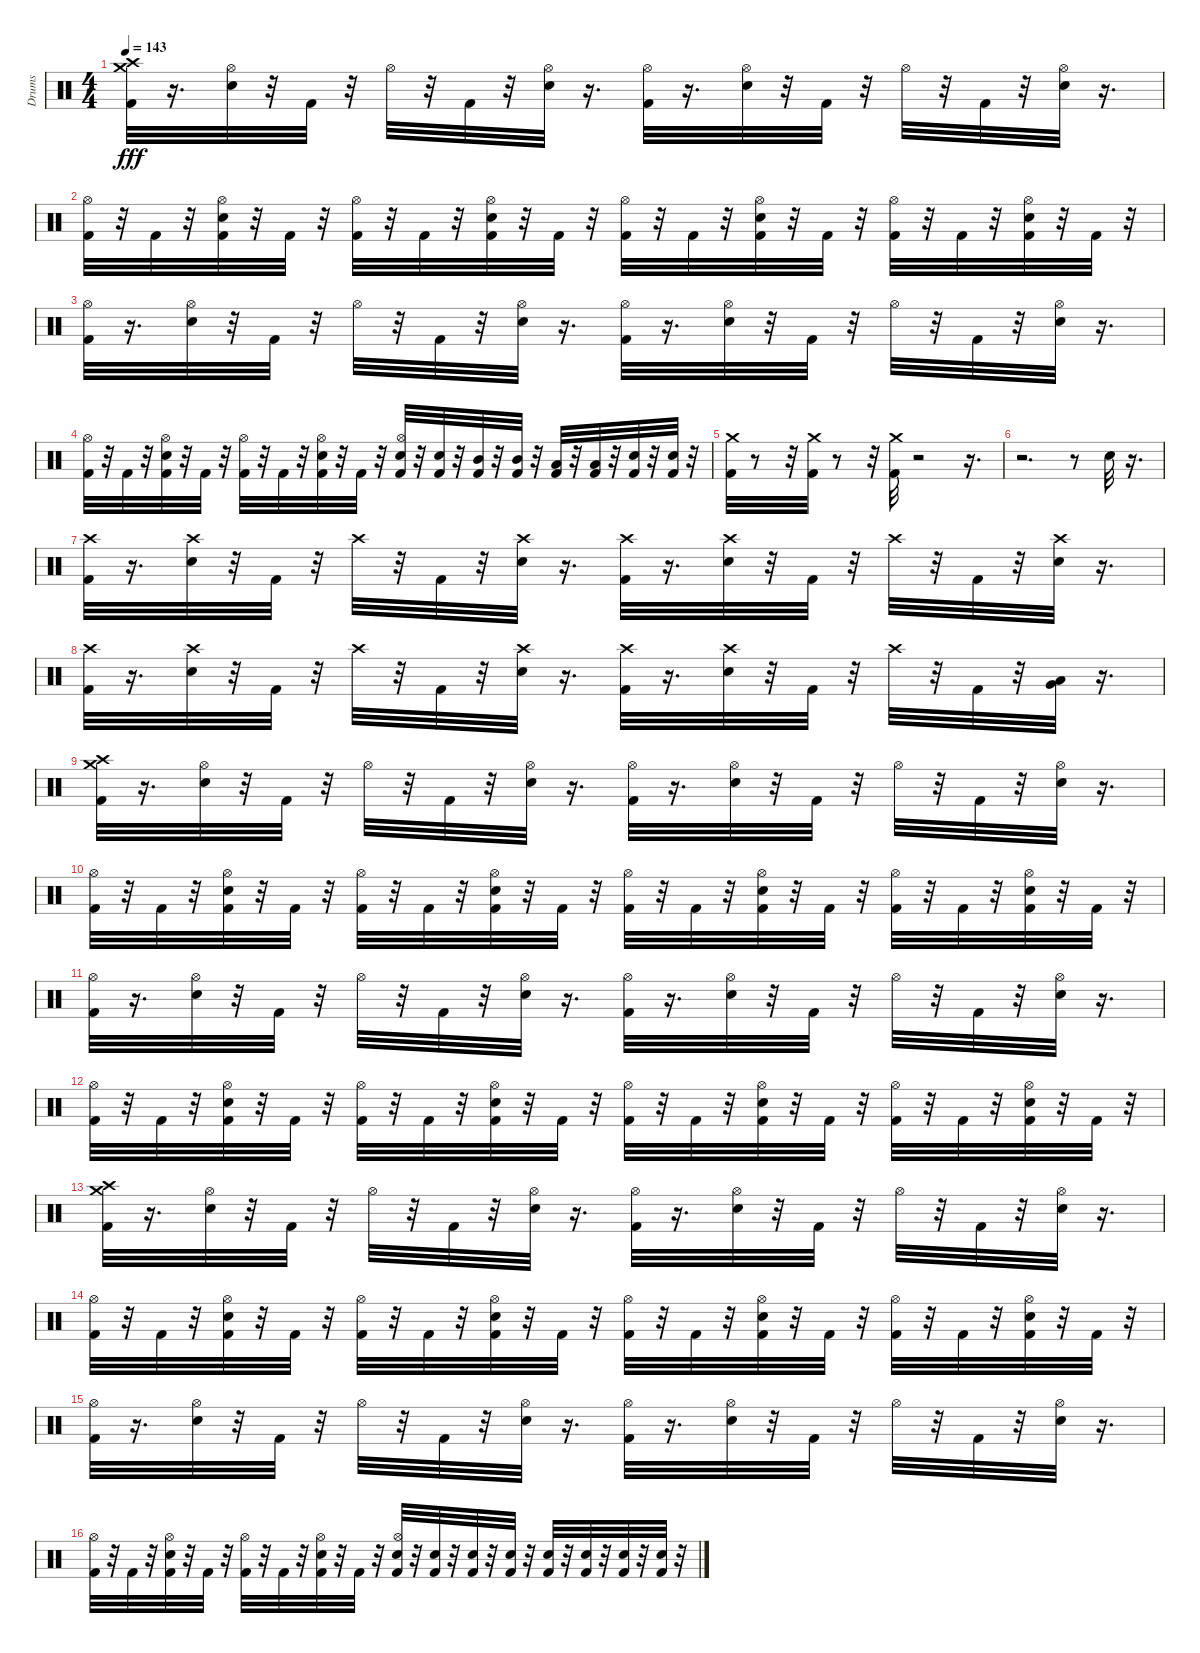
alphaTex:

\track ("Drums" "Drums") {instrument percussion}
\staff {score}
\articulation defaults
\ts (4 4)
\tempo 143
\clef neutral
\ks c
("Crash medium (hit)" "Crash high (hit)" "Kick (hit) 2").32{dy fff} r.16{d} ("Hi-Hat (open)" "Snare (hit) 2").32 r.32 "Kick (hit) 2".32 r.32 "Hi-Hat (open)".32 r.32 "Kick (hit) 2".32 r.32 ("Hi-Hat (open)" "Snare (hit) 2").32 r.16{d} ("Hi-Hat (open)" "Kick (hit) 2").32 r.16{d} ("Hi-Hat (open)" "Snare (hit) 2").32 r.32 "Kick (hit) 2".32 r.32 "Hi-Hat (open)".32 r.32 "Kick (hit) 2".32 r.32 ("Hi-Hat (open)" "Snare (hit) 2").32 r.16{d} |
("Hi-Hat (open)" "Kick (hit) 2").32 r.32 "Kick (hit) 2".32 r.32 ("Kick (hit) 2" "Hi-Hat (open)" "Snare (hit) 2").32 r.32 "Kick (hit) 2".32 r.32 ("Kick (hit) 2" "Hi-Hat (open)").32 r.32 "Kick (hit) 2".32 r.32 ("Kick (hit) 2" "Hi-Hat (open)" "Snare (hit) 2").32 r.32 "Kick (hit) 2".32 r.32 ("Hi-Hat (open)" "Kick (hit) 2").32 r.32 "Kick (hit) 2".32 r.32 ("Kick (hit) 2" "Hi-Hat (open)" "Snare (hit) 2").32 r.32 "Kick (hit) 2".32 r.32 ("Kick (hit) 2" "Hi-Hat (open)").32 r.32 "Kick (hit) 2".32 r.32 ("Kick (hit) 2" "Hi-Hat (open)" "Snare (hit) 2").32 r.32 "Kick (hit) 2".32 r.32 |
("Hi-Hat (open)" "Kick (hit) 2").32 r.16{d} ("Hi-Hat (open)" "Snare (hit) 2").32 r.32 "Kick (hit) 2".32 r.32 "Hi-Hat (open)".32 r.32 "Kick (hit) 2".32 r.32 ("Hi-Hat (open)" "Snare (hit) 2").32 r.16{d} ("Hi-Hat (open)" "Kick (hit) 2").32 r.16{d} ("Hi-Hat (open)" "Snare (hit) 2").32 r.32 "Kick (hit) 2".32 r.32 "Hi-Hat (open)".32 r.32 "Kick (hit) 2".32 r.32 ("Hi-Hat (open)" "Snare (hit) 2").32 r.16{d} |
("Hi-Hat (open)" "Kick (hit) 2").32 r.32 "Kick (hit) 2".32 r.32 ("Kick (hit) 2" "Hi-Hat (open)" "Snare (hit) 2").32 r.32 "Kick (hit) 2".32 r.32 ("Kick (hit) 2" "Hi-Hat (open)").32 r.32 "Kick (hit) 2".32 r.32 ("Kick (hit) 2" "Hi-Hat (open)" "Snare (hit) 2").32 r.32 "Kick (hit) 2".32 r.32 ("Snare (hit) 2" "Hi-Hat (open)" "Kick (hit) 2").32 r.32 ("Snare (hit) 2" "Kick (hit) 2").32 r.32 ("Mid Tom (hit)" "Kick (hit) 2").32 r.32 ("Mid Tom (hit)" "Kick (hit) 2").32 r.32 ("Low Tom (hit)" "Kick (hit) 2").32 r.32 ("Low Tom (hit)" "Kick (hit) 2").32 r.32 ("Snare (hit) 2" "Kick (hit) 2").32 r.32 ("Snare (hit) 2" "Kick (hit) 2").32 r.32 |
("Crash medium (hit)" "Kick (hit) 2").32 r.8 r.32 ("Crash medium (hit)" "Kick (hit) 2").32 r.8 r.32 ("Crash medium (hit)" "Kick (hit) 2").32 r.2 r.16{d} |
r.2{d} r.8 "Snare (hit) 2".32 r.16{d} |
("Kick (hit) 2" "Crash high (hit)").32 r.16{d} ("Snare (hit) 2" "Crash high (hit)").32 r.32 "Kick (hit) 2".32 r.32 "Crash high (hit)".32 r.32 "Kick (hit) 2".32 r.32 ("Snare (hit) 2" "Crash high (hit)").32 r.16{d} ("Kick (hit) 2" "Crash high (hit)").32 r.16{d} ("Crash high (hit)" "Snare (hit) 2").32 r.32 "Kick (hit) 2".32 r.32 "Crash high (hit)".32 r.32 "Kick (hit) 2".32 r.32 ("Crash high (hit)" "Snare (hit) 2").32 r.16{d} |
("Kick (hit) 2" "Crash high (hit)").32 r.16{d} ("Snare (hit) 2" "Crash high (hit)").32 r.32 "Kick (hit) 2".32 r.32 "Crash high (hit)".32 r.32 "Kick (hit) 2".32 r.32 ("Snare (hit) 2" "Crash high (hit)").32 r.16{d} ("Kick (hit) 2" "Crash high (hit)").32 r.16{d} ("Snare (hit) 2" "Crash high (hit)").32 r.32 "Kick (hit) 2".32 r.32 "Crash high (hit)".32 r.32 "Kick (hit) 2".32 r.32 ("Very Low Tom (hit)" "Low Floor Tom (hit)").32 r.16{d} |
("Crash medium (hit)" "Crash high (hit)" "Kick (hit) 2").32 r.16{d} ("Hi-Hat (open)" "Snare (hit) 2").32 r.32 "Kick (hit) 2".32 r.32 "Hi-Hat (open)".32 r.32 "Kick (hit) 2".32 r.32 ("Hi-Hat (open)" "Snare (hit) 2").32 r.16{d} ("Hi-Hat (open)" "Kick (hit) 2").32 r.16{d} ("Hi-Hat (open)" "Snare (hit) 2").32 r.32 "Kick (hit) 2".32 r.32 "Hi-Hat (open)".32 r.32 "Kick (hit) 2".32 r.32 ("Hi-Hat (open)" "Snare (hit) 2").32 r.16{d} |
("Hi-Hat (open)" "Kick (hit) 2").32 r.32 "Kick (hit) 2".32 r.32 ("Kick (hit) 2" "Hi-Hat (open)" "Snare (hit) 2").32 r.32 "Kick (hit) 2".32 r.32 ("Kick (hit) 2" "Hi-Hat (open)").32 r.32 "Kick (hit) 2".32 r.32 ("Kick (hit) 2" "Hi-Hat (open)" "Snare (hit) 2").32 r.32 "Kick (hit) 2".32 r.32 ("Hi-Hat (open)" "Kick (hit) 2").32 r.32 "Kick (hit) 2".32 r.32 ("Kick (hit) 2" "Hi-Hat (open)" "Snare (hit) 2").32 r.32 "Kick (hit) 2".32 r.32 ("Kick (hit) 2" "Hi-Hat (open)").32 r.32 "Kick (hit) 2".32 r.32 ("Kick (hit) 2" "Hi-Hat (open)" "Snare (hit) 2").32 r.32 "Kick (hit) 2".32 r.32 |
("Hi-Hat (open)" "Kick (hit) 2").32 r.16{d} ("Hi-Hat (open)" "Snare (hit) 2").32 r.32 "Kick (hit) 2".32 r.32 "Hi-Hat (open)".32 r.32 "Kick (hit) 2".32 r.32 ("Hi-Hat (open)" "Snare (hit) 2").32 r.16{d} ("Hi-Hat (open)" "Kick (hit) 2").32 r.16{d} ("Hi-Hat (open)" "Snare (hit) 2").32 r.32 "Kick (hit) 2".32 r.32 "Hi-Hat (open)".32 r.32 "Kick (hit) 2".32 r.32 ("Hi-Hat (open)" "Snare (hit) 2").32 r.16{d} |
("Hi-Hat (open)" "Kick (hit) 2").32 r.32 "Kick (hit) 2".32 r.32 ("Kick (hit) 2" "Hi-Hat (open)" "Snare (hit) 2").32 r.32 "Kick (hit) 2".32 r.32 ("Kick (hit) 2" "Hi-Hat (open)").32 r.32 "Kick (hit) 2".32 r.32 ("Kick (hit) 2" "Hi-Hat (open)" "Snare (hit) 2").32 r.32 "Kick (hit) 2".32 r.32 ("Hi-Hat (open)" "Kick (hit) 2").32 r.32 "Kick (hit) 2".32 r.32 ("Kick (hit) 2" "Hi-Hat (open)" "Snare (hit) 2").32 r.32 "Kick (hit) 2".32 r.32 ("Kick (hit) 2" "Hi-Hat (open)").32 r.32 "Kick (hit) 2".32 r.32 ("Snare (hit) 2" "Hi-Hat (open)" "Kick (hit) 2").32 r.32 "Kick (hit) 2".32 r.32 |
("Crash medium (hit)" "Crash high (hit)" "Kick (hit) 2").32 r.16{d} ("Hi-Hat (open)" "Snare (hit) 2").32 r.32 "Kick (hit) 2".32 r.32 "Hi-Hat (open)".32 r.32 "Kick (hit) 2".32 r.32 ("Hi-Hat (open)" "Snare (hit) 2").32 r.16{d} ("Hi-Hat (open)" "Kick (hit) 2").32 r.16{d} ("Hi-Hat (open)" "Snare (hit) 2").32 r.32 "Kick (hit) 2".32 r.32 "Hi-Hat (open)".32 r.32 "Kick (hit) 2".32 r.32 ("Hi-Hat (open)" "Snare (hit) 2").32 r.16{d} |
("Hi-Hat (open)" "Kick (hit) 2").32 r.32 "Kick (hit) 2".32 r.32 ("Kick (hit) 2" "Hi-Hat (open)" "Snare (hit) 2").32 r.32 "Kick (hit) 2".32 r.32 ("Kick (hit) 2" "Hi-Hat (open)").32 r.32 "Kick (hit) 2".32 r.32 ("Kick (hit) 2" "Hi-Hat (open)" "Snare (hit) 2").32 r.32 "Kick (hit) 2".32 r.32 ("Hi-Hat (open)" "Kick (hit) 2").32 r.32 "Kick (hit) 2".32 r.32 ("Kick (hit) 2" "Hi-Hat (open)" "Snare (hit) 2").32 r.32 "Kick (hit) 2".32 r.32 ("Kick (hit) 2" "Hi-Hat (open)").32 r.32 "Kick (hit) 2".32 r.32 ("Kick (hit) 2" "Hi-Hat (open)" "Snare (hit) 2").32 r.32 "Kick (hit) 2".32 r.32 |
("Hi-Hat (open)" "Kick (hit) 2").32 r.16{d} ("Hi-Hat (open)" "Snare (hit) 2").32 r.32 "Kick (hit) 2".32 r.32 "Hi-Hat (open)".32 r.32 "Kick (hit) 2".32 r.32 ("Hi-Hat (open)" "Snare (hit) 2").32 r.16{d} ("Hi-Hat (open)" "Kick (hit) 2").32 r.16{d} ("Hi-Hat (open)" "Snare (hit) 2").32 r.32 "Kick (hit) 2".32 r.32 "Hi-Hat (open)".32 r.32 "Kick (hit) 2".32 r.32 ("Hi-Hat (open)" "Snare (hit) 2").32 r.16{d} |
("Hi-Hat (open)" "Kick (hit) 2").32 r.32 "Kick (hit) 2".32 r.32 ("Kick (hit) 2" "Hi-Hat (open)" "Snare (hit) 2").32 r.32 "Kick (hit) 2".32 r.32 ("Kick (hit) 2" "Hi-Hat (open)").32 r.32 "Kick (hit) 2".32 r.32 ("Kick (hit) 2" "Hi-Hat (open)" "Snare (hit) 2").32 r.32 "Kick (hit) 2".32 r.32 ("Snare (hit) 2" "Hi-Hat (open)" "Kick (hit) 2").32 r.32 ("Snare (hit) 2" "Kick (hit) 2").32 r.32 ("Snare (hit) 2" "Kick (hit) 2").32 r.32 ("Snare (hit) 2" "Kick (hit) 2").32 r.32 ("Snare (hit) 2" "Kick (hit) 2").32 r.32 ("Snare (hit) 2" "Kick (hit) 2").32 r.32 ("Snare (hit) 2" "Kick (hit) 2").32 r.32 ("Snare (hit) 2" "Kick (hit) 2").32 r.32
